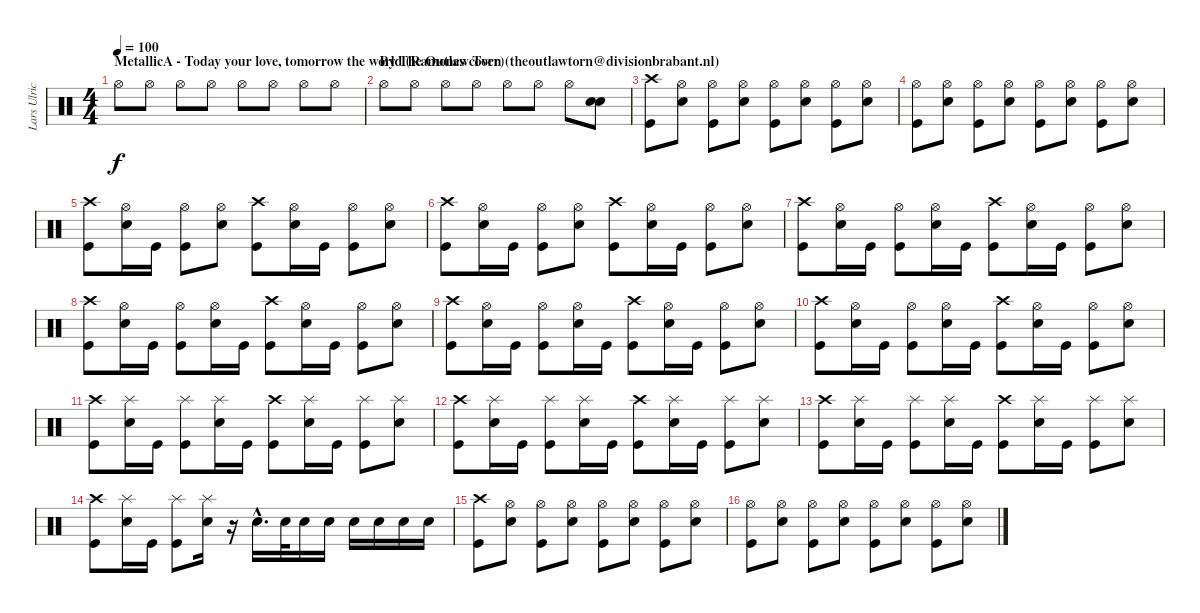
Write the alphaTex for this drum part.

\track ("Lars Ulrich Drums" "Lars Ulric") {instrument percussion}
\staff {score}
\articulation defaults
\ts (4 4)
\section ("" "MetallicA - Today your love, tomorrow the world (Ramones cover)")
\tempo 100
\clef neutral
\ks c "Hi-Hat (open)".8{dy f} "Hi-Hat (open)".8 "Hi-Hat (open)".8 "Hi-Hat (open)".8 "Hi-Hat (open)".8 "Hi-Hat (open)".8 "Hi-Hat (open)".8 "Hi-Hat (open)".8
|
\section ("" "By The Outlaw Torn (theoutlawtorn@divisionbrabant.nl)")
"Hi-Hat (open)".8 "Hi-Hat (open)".8 "Hi-Hat (open)".8 "Hi-Hat (open)".8 "Hi-Hat (open)".8 "Hi-Hat (open)".8 "Hi-Hat (open)".8 ("Electric Snare (hit)" "Electric Snare (hit)").8{bd 480} |
("Crash high (hit)" "Kick (hit)").8 ("Hi-Hat (open)" "Electric Snare (hit)").8 ("Hi-Hat (open)" "Kick (hit)").8 ("Hi-Hat (open)" "Electric Snare (hit)").8 ("Hi-Hat (open)" "Kick (hit)").8 ("Hi-Hat (open)" "Electric Snare (hit)").8 ("Hi-Hat (open)" "Kick (hit)").8 ("Hi-Hat (open)" "Electric Snare (hit)").8 |
("Hi-Hat (open)" "Kick (hit)").8 ("Hi-Hat (open)" "Electric Snare (hit)").8 ("Hi-Hat (open)" "Kick (hit)").8 ("Hi-Hat (open)" "Electric Snare (hit)").8 ("Hi-Hat (open)" "Kick (hit)").8 ("Hi-Hat (open)" "Electric Snare (hit)").8 ("Hi-Hat (open)" "Kick (hit)").8 ("Hi-Hat (open)" "Electric Snare (hit)").8 |
("Crash high (hit)" "Kick (hit)").8 ("Hi-Hat (open)" "Electric Snare (hit)").16 "Kick (hit)".16 ("Hi-Hat (open)" "Kick (hit)").8 ("Hi-Hat (open)" "Electric Snare (hit)").8 ("Crash high (hit)" "Kick (hit)").8 ("Hi-Hat (open)" "Electric Snare (hit)").16 "Kick (hit)".16 ("Hi-Hat (open)" "Kick (hit)").8 ("Hi-Hat (open)" "Electric Snare (hit)").8 |
("Crash high (hit)" "Kick (hit)").8 ("Hi-Hat (open)" "Electric Snare (hit)").16 "Kick (hit)".16 ("Hi-Hat (open)" "Kick (hit)").8 ("Hi-Hat (open)" "Electric Snare (hit)").8 ("Crash high (hit)" "Kick (hit)").8 ("Hi-Hat (open)" "Electric Snare (hit)").16 "Kick (hit)".16 ("Hi-Hat (open)" "Kick (hit)").8 ("Hi-Hat (open)" "Electric Snare (hit)").8 |
("Crash high (hit)" "Kick (hit)").8 ("Hi-Hat (open)" "Electric Snare (hit)").16 "Kick (hit)".16 ("Hi-Hat (open)" "Kick (hit)").8 ("Hi-Hat (open)" "Electric Snare (hit)").16 "Kick (hit)".16 ("Crash high (hit)" "Kick (hit)").8 ("Hi-Hat (open)" "Electric Snare (hit)").16 "Kick (hit)".16 ("Hi-Hat (open)" "Kick (hit)").8 ("Hi-Hat (open)" "Electric Snare (hit)").8 |
("Crash high (hit)" "Kick (hit)").8 ("Hi-Hat (open)" "Electric Snare (hit)").16 "Kick (hit)".16 ("Hi-Hat (open)" "Kick (hit)").8 ("Hi-Hat (open)" "Electric Snare (hit)").16 "Kick (hit)".16 ("Crash high (hit)" "Kick (hit)").8 ("Hi-Hat (open)" "Electric Snare (hit)").16 "Kick (hit)".16 ("Hi-Hat (open)" "Kick (hit)").8 ("Hi-Hat (open)" "Electric Snare (hit)").8 |
("Crash high (hit)" "Kick (hit)").8 ("Hi-Hat (open)" "Electric Snare (hit)").16 "Kick (hit)".16 ("Hi-Hat (open)" "Kick (hit)").8 ("Hi-Hat (open)" "Electric Snare (hit)").16 "Kick (hit)".16 ("Crash high (hit)" "Kick (hit)").8 ("Hi-Hat (open)" "Electric Snare (hit)").16 "Kick (hit)".16 ("Hi-Hat (open)" "Kick (hit)").8 ("Hi-Hat (open)" "Electric Snare (hit)").8 |
("Crash high (hit)" "Kick (hit)").8 ("Hi-Hat (open)" "Electric Snare (hit)").16 "Kick (hit)".16 ("Hi-Hat (open)" "Kick (hit)").8 ("Hi-Hat (open)" "Electric Snare (hit)").16 "Kick (hit)".16 ("Crash high (hit)" "Kick (hit)").8 ("Hi-Hat (open)" "Electric Snare (hit)").16 "Kick (hit)".16 ("Hi-Hat (open)" "Kick (hit)").8 ("Hi-Hat (open)" "Electric Snare (hit)").8 |
("Crash high (hit)" "Kick (hit)").8 ("Splash (hit)" "Electric Snare (hit)").16 "Kick (hit)".16 ("Splash (hit)" "Kick (hit)").8 ("Splash (hit)" "Electric Snare (hit)").16 "Kick (hit)".16 ("Crash high (hit)" "Kick (hit)").8 ("Splash (hit)" "Electric Snare (hit)").16 "Kick (hit)".16 ("Splash (hit)" "Kick (hit)").8 ("Splash (hit)" "Electric Snare (hit)").8 |
("Crash high (hit)" "Kick (hit)").8 ("Splash (hit)" "Electric Snare (hit)").16 "Kick (hit)".16 ("Splash (hit)" "Kick (hit)").8 ("Splash (hit)" "Electric Snare (hit)").16 "Kick (hit)".16 ("Crash high (hit)" "Kick (hit)").8 ("Splash (hit)" "Electric Snare (hit)").16 "Kick (hit)".16 ("Splash (hit)" "Kick (hit)").8 ("Splash (hit)" "Electric Snare (hit)").8 |
("Crash high (hit)" "Kick (hit)").8 ("Splash (hit)" "Electric Snare (hit)").16 "Kick (hit)".16 ("Splash (hit)" "Kick (hit)").8 ("Splash (hit)" "Electric Snare (hit)").16 "Kick (hit)".16 ("Crash high (hit)" "Kick (hit)").8 ("Splash (hit)" "Electric Snare (hit)").16 "Kick (hit)".16 ("Splash (hit)" "Kick (hit)").8 ("Splash (hit)" "Electric Snare (hit)").8 |
("Crash high (hit)" "Kick (hit)").8 ("Splash (hit)" "Electric Snare (hit)").16 "Kick (hit)".16 ("Splash (hit)" "Kick (hit)").8 ("Splash (hit)" "Electric Snare (hit)").16 r.16 "Electric Snare (hit)"{hac}.16{d} "Electric Snare (hit)".32 "Electric Snare (hit)".16 "Electric Snare (hit)".16 "Electric Snare (hit)".16 "Electric Snare (hit)".16 "Electric Snare (hit)".16 "Electric Snare (hit)".16 |
("Crash high (hit)" "Kick (hit)").8 ("Hi-Hat (open)" "Electric Snare (hit)").8 ("Hi-Hat (open)" "Kick (hit)").8 ("Hi-Hat (open)" "Electric Snare (hit)").8 ("Hi-Hat (open)" "Kick (hit)").8 ("Hi-Hat (open)" "Electric Snare (hit)").8 ("Hi-Hat (open)" "Kick (hit)").8 ("Hi-Hat (open)" "Electric Snare (hit)").8 |
("Hi-Hat (open)" "Kick (hit)").8 ("Hi-Hat (open)" "Electric Snare (hit)").8 ("Hi-Hat (open)" "Kick (hit)").8 ("Hi-Hat (open)" "Electric Snare (hit)").8 ("Hi-Hat (open)" "Kick (hit)").8 ("Hi-Hat (open)" "Electric Snare (hit)").8 ("Hi-Hat (open)" "Kick (hit)").8 ("Hi-Hat (open)" "Electric Snare (hit)").8
